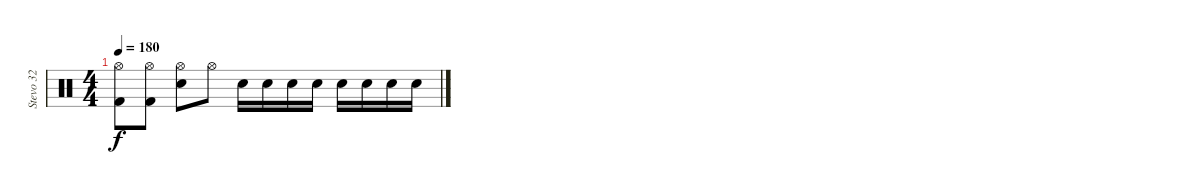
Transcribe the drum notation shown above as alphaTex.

\track ("Stevo 32" "Stevo 32") {instrument percussion}
\staff {score}
\articulation defaults
\ts (4 4)
\tempo 180
\clef neutral
\ks c
("Hi-Hat (open)" "Kick (hit) 2").8{dy f} ("Hi-Hat (open)" "Kick (hit) 2").8 ("Hi-Hat (open)" "Snare (hit) 2").8 "Hi-Hat (open)".8 "Snare (hit) 2".16 "Snare (hit) 2".16 "Snare (hit) 2".16 "Snare (hit) 2".16 "Snare (hit) 2".16 "Snare (hit) 2".16 "Snare (hit) 2".16 "Snare (hit) 2".16
